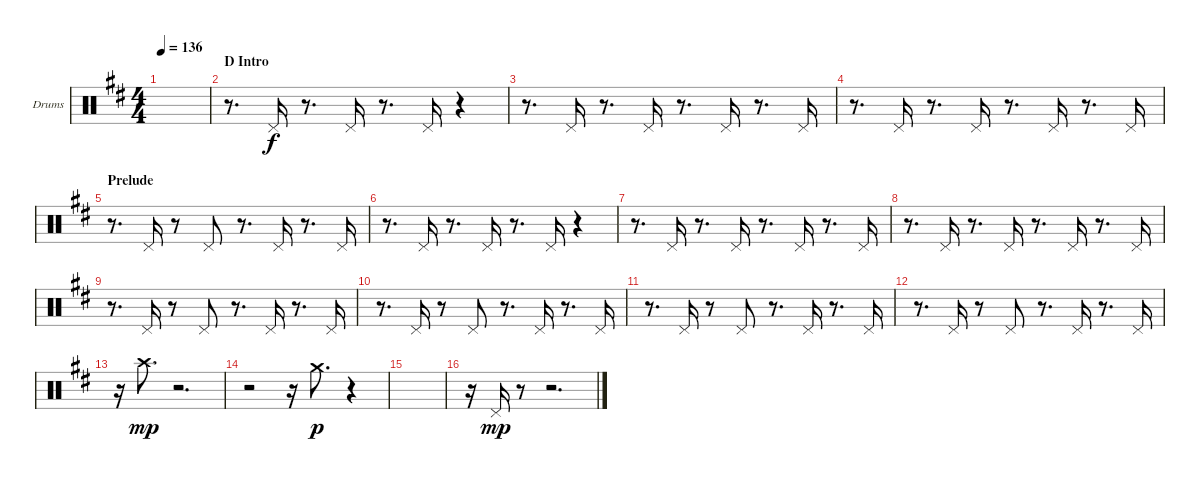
\bracketExtendMode groupsimilarinstruments
\firstSystemTrackNameOrientation horizontal
\otherSystemsTrackNameOrientation horizontal
\track ("HH" "Drums") {instrument percussion}
\staff {score}
\articulation defaults
\ts (4 4)
\tempo 136
\clef neutral
\ks d
|
\section ("" "D Intro")
r.8{d} "Pedal Hi-Hat (hit)".16 r.8{d} "Pedal Hi-Hat (hit)".16 r.8{d} "Pedal Hi-Hat (hit)".16 r.4 |
r.8{d} "Pedal Hi-Hat (hit)".16 r.8{d} "Pedal Hi-Hat (hit)".16 r.8{d} "Pedal Hi-Hat (hit)".16 r.8{d} "Pedal Hi-Hat (hit)".16 |
r.8{d} "Pedal Hi-Hat (hit)".16 r.8{d} "Pedal Hi-Hat (hit)".16 r.8{d} "Pedal Hi-Hat (hit)".16 r.8{d} "Pedal Hi-Hat (hit)".16 |
\section ("" "Prelude")
r.8{d} "Pedal Hi-Hat (hit)".16 r.8 "Pedal Hi-Hat (hit)".8 r.8{d} "Pedal Hi-Hat (hit)".16 r.8{d} "Pedal Hi-Hat (hit)".16 |
r.8{d} "Pedal Hi-Hat (hit)".16 r.8{d} "Pedal Hi-Hat (hit)".16 r.8{d} "Pedal Hi-Hat (hit)".16 r.4 |
r.8{d} "Pedal Hi-Hat (hit)".16 r.8{d} "Pedal Hi-Hat (hit)".16 r.8{d} "Pedal Hi-Hat (hit)".16 r.8{d} "Pedal Hi-Hat (hit)".16 |
r.8{d} "Pedal Hi-Hat (hit)".16 r.8{d} "Pedal Hi-Hat (hit)".16 r.8{d} "Pedal Hi-Hat (hit)".16 r.8{d} "Pedal Hi-Hat (hit)".16 |
r.8{d} "Pedal Hi-Hat (hit)".16 r.8 "Pedal Hi-Hat (hit)".8 r.8{d} "Pedal Hi-Hat (hit)".16 r.8{d} "Pedal Hi-Hat (hit)".16 |
r.8{d} "Pedal Hi-Hat (hit)".16 r.8 "Pedal Hi-Hat (hit)".8 r.8{d} "Pedal Hi-Hat (hit)".16 r.8{d} "Pedal Hi-Hat (hit)".16 |
r.8{d} "Pedal Hi-Hat (hit)".16 r.8 "Pedal Hi-Hat (hit)".8 r.8{d} "Pedal Hi-Hat (hit)".16 r.8{d} "Pedal Hi-Hat (hit)".16 |
r.8{d} "Pedal Hi-Hat (hit)".16 r.8 "Pedal Hi-Hat (hit)".8 r.8{d} "Pedal Hi-Hat (hit)".16 r.8{d} "Pedal Hi-Hat (hit)".16 |
r.16 "Crash high (hit)".8{d dy mp} r.2{d} |
r.2 r.16 "Crash medium (hit)".8{d dy p} r.4 |
|
r.16 "Pedal Hi-Hat (hit)".16{dy mp} r.8 r.2{d}
